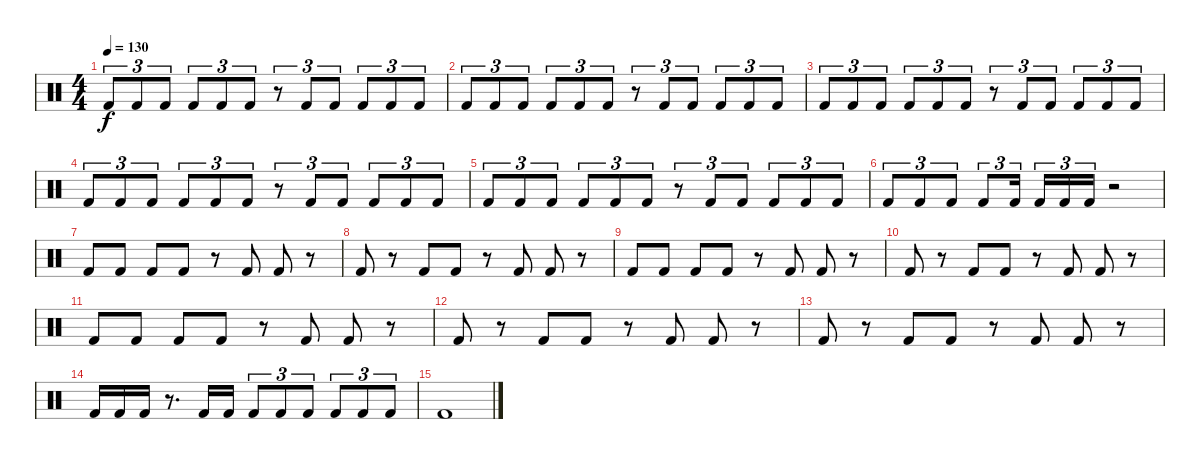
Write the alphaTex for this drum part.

\track "" {instrument percussion}
\staff {score}
\articulation defaults
\ts (4 4)
\tempo 130
\clef neutral
\ks c "Kick (hit) 2".8{tu (3 2) dy f} "Kick (hit) 2".8{tu (3 2)} "Kick (hit) 2".8{tu (3 2)} "Kick (hit) 2".8{tu (3 2)} "Kick (hit) 2".8{tu (3 2)} "Kick (hit) 2".8{tu (3 2)}
r.8{tu (3 2)} "Kick (hit) 2".8{tu (3 2)} "Kick (hit) 2".8{tu (3 2)} "Kick (hit) 2".8{tu (3 2)} "Kick (hit) 2".8{tu (3 2)} "Kick (hit) 2".8{tu (3 2)} |
"Kick (hit) 2".8{tu (3 2)} "Kick (hit) 2".8{tu (3 2)} "Kick (hit) 2".8{tu (3 2)} "Kick (hit) 2".8{tu (3 2)} "Kick (hit) 2".8{tu (3 2)} "Kick (hit) 2".8{tu (3 2)} r.8{tu (3 2)} "Kick (hit) 2".8{tu (3 2)} "Kick (hit) 2".8{tu (3 2)} "Kick (hit) 2".8{tu (3 2)} "Kick (hit) 2".8{tu (3 2)} "Kick (hit) 2".8{tu (3 2)} |
"Kick (hit) 2".8{tu (3 2)} "Kick (hit) 2".8{tu (3 2)} "Kick (hit) 2".8{tu (3 2)} "Kick (hit) 2".8{tu (3 2)} "Kick (hit) 2".8{tu (3 2)} "Kick (hit) 2".8{tu (3 2)} r.8{tu (3 2)} "Kick (hit) 2".8{tu (3 2)} "Kick (hit) 2".8{tu (3 2)} "Kick (hit) 2".8{tu (3 2)} "Kick (hit) 2".8{tu (3 2)} "Kick (hit) 2".8{tu (3 2)} |
"Kick (hit) 2".8{tu (3 2)} "Kick (hit) 2".8{tu (3 2)} "Kick (hit) 2".8{tu (3 2)} "Kick (hit) 2".8{tu (3 2)} "Kick (hit) 2".8{tu (3 2)} "Kick (hit) 2".8{tu (3 2)} r.8{tu (3 2)} "Kick (hit) 2".8{tu (3 2)} "Kick (hit) 2".8{tu (3 2)} "Kick (hit) 2".8{tu (3 2)} "Kick (hit) 2".8{tu (3 2)} "Kick (hit) 2".8{tu (3 2)} |
"Kick (hit) 2".8{tu (3 2)} "Kick (hit) 2".8{tu (3 2)} "Kick (hit) 2".8{tu (3 2)} "Kick (hit) 2".8{tu (3 2)} "Kick (hit) 2".8{tu (3 2)} "Kick (hit) 2".8{tu (3 2)} r.8{tu (3 2)} "Kick (hit) 2".8{tu (3 2)} "Kick (hit) 2".8{tu (3 2)} "Kick (hit) 2".8{tu (3 2)} "Kick (hit) 2".8{tu (3 2)} "Kick (hit) 2".8{tu (3 2)} |
"Kick (hit) 2".8{tu (3 2)} "Kick (hit) 2".8{tu (3 2)} "Kick (hit) 2".8{tu (3 2)} "Kick (hit) 2".8{tu (3 2)} "Kick (hit) 2".16{tu (3 2)} "Kick (hit) 2".16{tu (3 2)} "Kick (hit) 2".16{tu (3 2)} "Kick (hit) 2".16{tu (3 2)} r.2 |
"Kick (hit) 2".8 "Kick (hit) 2".8 "Kick (hit) 2".8 "Kick (hit) 2".8 r.8 "Kick (hit) 2".8 "Kick (hit) 2".8 r.8 |
"Kick (hit) 2".8 r.8 "Kick (hit) 2".8 "Kick (hit) 2".8 r.8 "Kick (hit) 2".8 "Kick (hit) 2".8 r.8 |
"Kick (hit) 2".8 "Kick (hit) 2".8 "Kick (hit) 2".8 "Kick (hit) 2".8 r.8 "Kick (hit) 2".8 "Kick (hit) 2".8 r.8 |
"Kick (hit) 2".8 r.8 "Kick (hit) 2".8 "Kick (hit) 2".8 r.8 "Kick (hit) 2".8 "Kick (hit) 2".8 r.8 |
"Kick (hit) 2".8 "Kick (hit) 2".8 "Kick (hit) 2".8 "Kick (hit) 2".8 r.8 "Kick (hit) 2".8 "Kick (hit) 2".8 r.8 |
"Kick (hit) 2".8 r.8 "Kick (hit) 2".8 "Kick (hit) 2".8 r.8 "Kick (hit) 2".8 "Kick (hit) 2".8 r.8 |
"Kick (hit) 2".8 r.8 "Kick (hit) 2".8 "Kick (hit) 2".8 r.8 "Kick (hit) 2".8 "Kick (hit) 2".8 r.8 |
"Kick (hit) 2".16 "Kick (hit) 2".16 "Kick (hit) 2".16 r.8{d} "Kick (hit) 2".16 "Kick (hit) 2".16 "Kick (hit) 2".8{tu (3 2)} "Kick (hit) 2".8{tu (3 2)} "Kick (hit) 2".8{tu (3 2)} "Kick (hit) 2".8{tu (3 2)} "Kick (hit) 2".8{tu (3 2)} "Kick (hit) 2".8{tu (3 2)} |
"Kick (hit) 2".1
